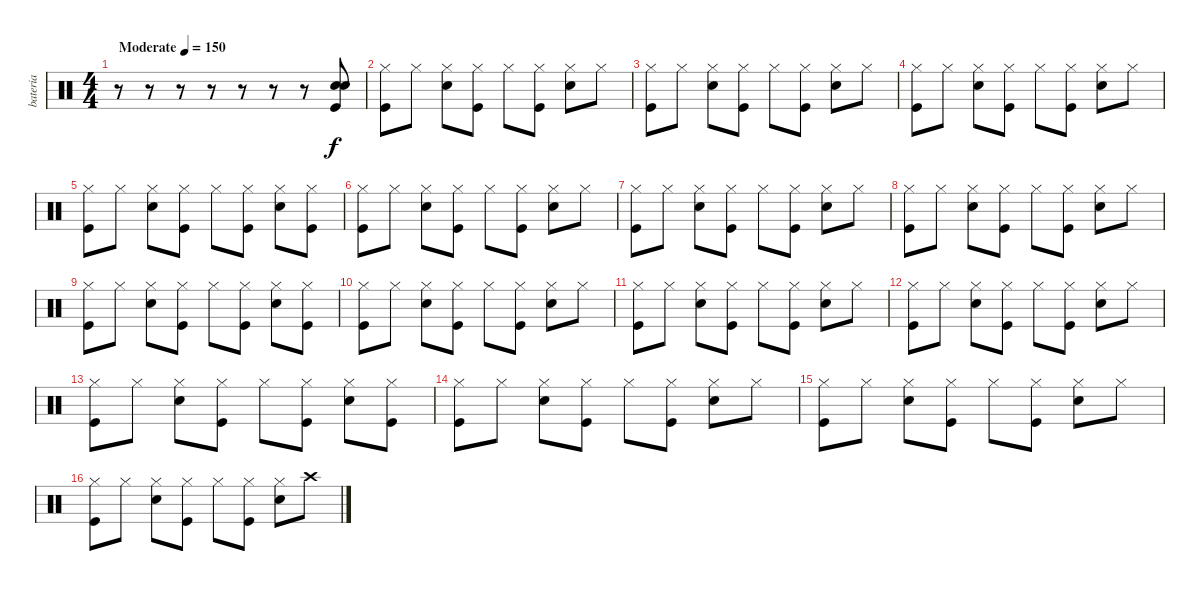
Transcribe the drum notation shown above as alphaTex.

\track ("bateria" "bateria") {instrument percussion}
\staff {score}
\articulation defaults
\ts (4 4)
\tempo (150 "Moderate")
\clef neutral
\ks c
r.8{dy f} r.8 r.8 r.8 r.8 r.8 r.8 ("Electric Snare (hit)" "Snare (hit) 2" "Kick (hit)").8 |
("Hi-Hat (closed)" "Kick (hit)").8 "Hi-Hat (closed)".8 ("Hi-Hat (closed)" "Electric Snare (hit)").8 ("Hi-Hat (closed)" "Kick (hit)").8 "Hi-Hat (closed)".8 ("Hi-Hat (closed)" "Kick (hit)").8 ("Hi-Hat (closed)" "Electric Snare (hit)").8 "Hi-Hat (closed)".8 |
("Hi-Hat (closed)" "Kick (hit)").8 "Hi-Hat (closed)".8 ("Hi-Hat (closed)" "Electric Snare (hit)").8 ("Hi-Hat (closed)" "Kick (hit)").8 "Hi-Hat (closed)".8 ("Hi-Hat (closed)" "Kick (hit)").8 ("Hi-Hat (closed)" "Electric Snare (hit)").8 "Hi-Hat (closed)".8 |
("Hi-Hat (closed)" "Kick (hit)").8 "Hi-Hat (closed)".8 ("Hi-Hat (closed)" "Electric Snare (hit)").8 ("Hi-Hat (closed)" "Kick (hit)").8 "Hi-Hat (closed)".8 ("Hi-Hat (closed)" "Kick (hit)").8 ("Hi-Hat (closed)" "Electric Snare (hit)").8 "Hi-Hat (closed)".8 |
("Hi-Hat (closed)" "Kick (hit)").8 "Hi-Hat (closed)".8 ("Hi-Hat (closed)" "Electric Snare (hit)").8 ("Hi-Hat (closed)" "Kick (hit)").8 "Hi-Hat (closed)".8 ("Hi-Hat (closed)" "Kick (hit)").8 ("Hi-Hat (closed)" "Electric Snare (hit)").8 ("Hi-Hat (closed)" "Kick (hit)").8 |
("Hi-Hat (closed)" "Kick (hit)").8 "Hi-Hat (closed)".8 ("Hi-Hat (closed)" "Electric Snare (hit)").8 ("Hi-Hat (closed)" "Kick (hit)").8 "Hi-Hat (closed)".8 ("Hi-Hat (closed)" "Kick (hit)").8 ("Hi-Hat (closed)" "Electric Snare (hit)").8 "Hi-Hat (closed)".8 |
("Hi-Hat (closed)" "Kick (hit)").8 "Hi-Hat (closed)".8 ("Hi-Hat (closed)" "Electric Snare (hit)").8 ("Hi-Hat (closed)" "Kick (hit)").8 "Hi-Hat (closed)".8 ("Hi-Hat (closed)" "Kick (hit)").8 ("Hi-Hat (closed)" "Electric Snare (hit)").8 "Hi-Hat (closed)".8 |
("Hi-Hat (closed)" "Kick (hit)").8 "Hi-Hat (closed)".8 ("Hi-Hat (closed)" "Electric Snare (hit)").8 ("Hi-Hat (closed)" "Kick (hit)").8 "Hi-Hat (closed)".8 ("Hi-Hat (closed)" "Kick (hit)").8 ("Hi-Hat (closed)" "Electric Snare (hit)").8 "Hi-Hat (closed)".8 |
("Hi-Hat (closed)" "Kick (hit)").8 "Hi-Hat (closed)".8 ("Hi-Hat (closed)" "Electric Snare (hit)").8 ("Hi-Hat (closed)" "Kick (hit)").8 "Hi-Hat (closed)".8 ("Hi-Hat (closed)" "Kick (hit)").8 ("Hi-Hat (closed)" "Electric Snare (hit)").8 ("Hi-Hat (closed)" "Kick (hit)").8 |
("Hi-Hat (closed)" "Kick (hit)").8 "Hi-Hat (closed)".8 ("Hi-Hat (closed)" "Electric Snare (hit)").8 ("Hi-Hat (closed)" "Kick (hit)").8 "Hi-Hat (closed)".8 ("Hi-Hat (closed)" "Kick (hit)").8 ("Hi-Hat (closed)" "Electric Snare (hit)").8 "Hi-Hat (closed)".8 |
("Hi-Hat (closed)" "Kick (hit)").8 "Hi-Hat (closed)".8 ("Hi-Hat (closed)" "Electric Snare (hit)").8 ("Hi-Hat (closed)" "Kick (hit)").8 "Hi-Hat (closed)".8 ("Hi-Hat (closed)" "Kick (hit)").8 ("Hi-Hat (closed)" "Electric Snare (hit)").8 "Hi-Hat (closed)".8 |
("Hi-Hat (closed)" "Kick (hit)").8 "Hi-Hat (closed)".8 ("Hi-Hat (closed)" "Electric Snare (hit)").8 ("Hi-Hat (closed)" "Kick (hit)").8 "Hi-Hat (closed)".8 ("Hi-Hat (closed)" "Kick (hit)").8 ("Hi-Hat (closed)" "Electric Snare (hit)").8 "Hi-Hat (closed)".8 |
("Hi-Hat (closed)" "Kick (hit)").8 "Hi-Hat (closed)".8 ("Hi-Hat (closed)" "Electric Snare (hit)").8 ("Hi-Hat (closed)" "Kick (hit)").8 "Hi-Hat (closed)".8 ("Hi-Hat (closed)" "Kick (hit)").8 ("Hi-Hat (closed)" "Electric Snare (hit)").8 ("Hi-Hat (closed)" "Kick (hit)").8 |
("Hi-Hat (closed)" "Kick (hit)").8 "Hi-Hat (closed)".8 ("Hi-Hat (closed)" "Electric Snare (hit)").8 ("Hi-Hat (closed)" "Kick (hit)").8 "Hi-Hat (closed)".8 ("Hi-Hat (closed)" "Kick (hit)").8 ("Hi-Hat (closed)" "Electric Snare (hit)").8 "Hi-Hat (closed)".8 |
("Hi-Hat (closed)" "Kick (hit)").8 "Hi-Hat (closed)".8 ("Hi-Hat (closed)" "Electric Snare (hit)").8 ("Hi-Hat (closed)" "Kick (hit)").8 "Hi-Hat (closed)".8 ("Hi-Hat (closed)" "Kick (hit)").8 ("Hi-Hat (closed)" "Electric Snare (hit)").8 "Hi-Hat (closed)".8 |
("Hi-Hat (closed)" "Kick (hit)").8 "Hi-Hat (closed)".8 ("Hi-Hat (closed)" "Electric Snare (hit)").8 ("Hi-Hat (closed)" "Kick (hit)").8 "Hi-Hat (closed)".8 ("Hi-Hat (closed)" "Kick (hit)").8 ("Hi-Hat (closed)" "Electric Snare (hit)").8 "Crash high (hit)".8
